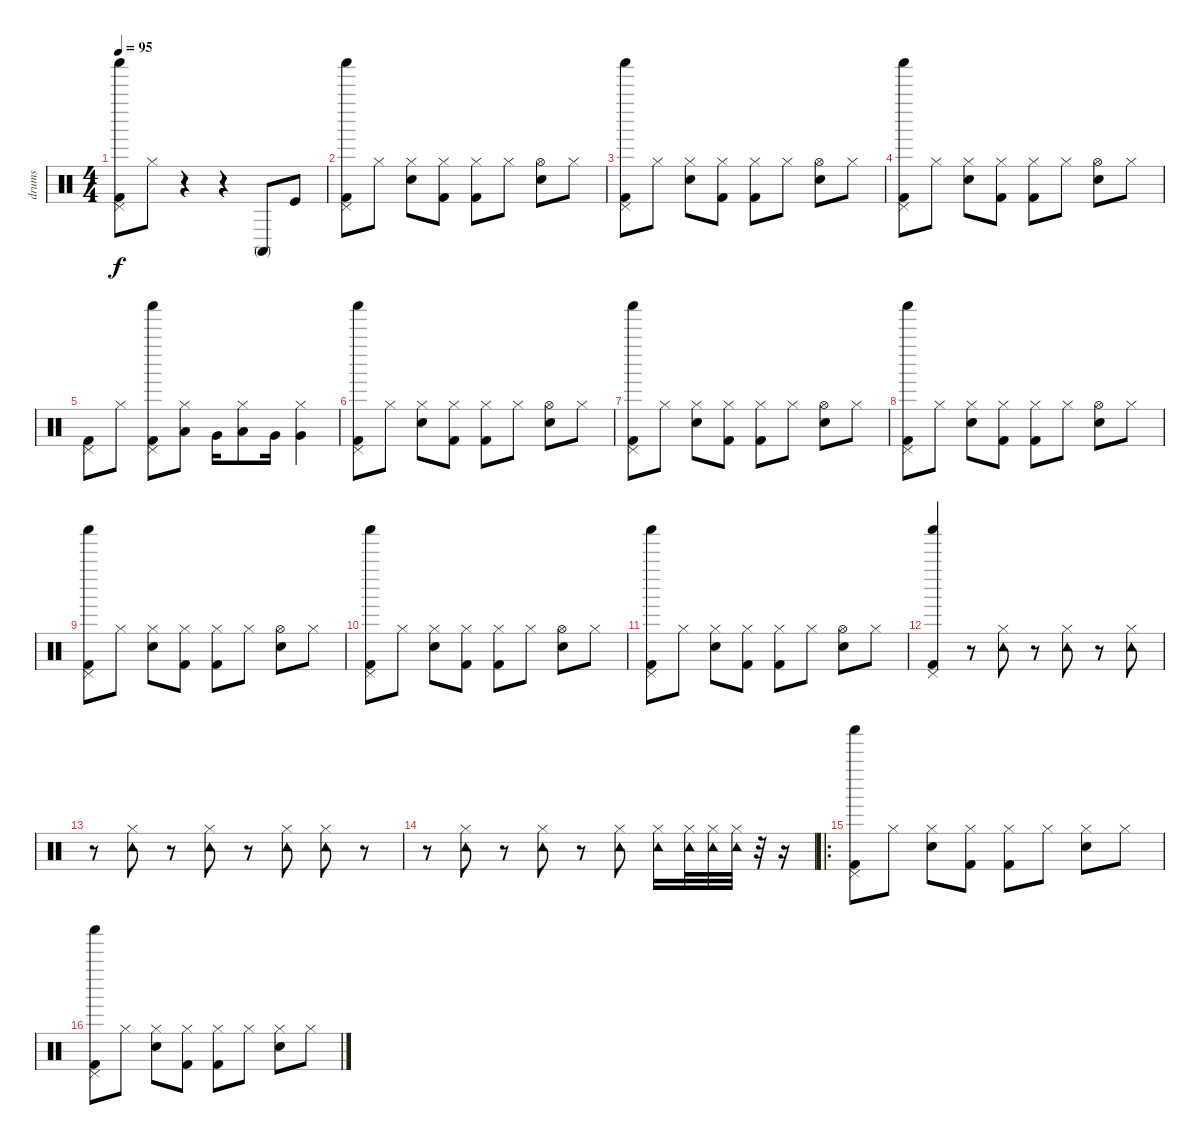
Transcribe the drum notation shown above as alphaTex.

\track ("drums" "drums") {instrument percussion}
\staff {score}
\articulation defaults
\ts (4 4)
\tempo 95
\clef neutral
\ks c
("Kick (hit) 2" "Shaker (hit)" "Pedal Hi-Hat (hit)").8{dy f} "Hi-Hat (closed)".8 r.4 r.4 "Conga high (mute)".8 "Kick (hit)".8 |
("Kick (hit) 2" "Shaker (hit)" "Pedal Hi-Hat (hit)").8 "Hi-Hat (closed)".8 ("Snare (hit) 2" "Hi-Hat (closed)").8 ("Kick (hit) 2" "Hi-Hat (closed)").8 ("Kick (hit) 2" "Hi-Hat (closed)").8 "Hi-Hat (closed)".8 ("Snare (hit) 2" "Hi-Hat (open)").8 "Hi-Hat (closed)".8 |
("Kick (hit) 2" "Shaker (hit)" "Pedal Hi-Hat (hit)").8 "Hi-Hat (closed)".8 ("Snare (hit) 2" "Hi-Hat (closed)").8 ("Kick (hit) 2" "Hi-Hat (closed)").8 ("Kick (hit) 2" "Hi-Hat (closed)").8 "Hi-Hat (closed)".8 ("Snare (hit) 2" "Hi-Hat (open)").8 "Hi-Hat (closed)".8 |
("Kick (hit) 2" "Shaker (hit)" "Pedal Hi-Hat (hit)").8 "Hi-Hat (closed)".8 ("Snare (hit) 2" "Hi-Hat (closed)").8 ("Kick (hit) 2" "Hi-Hat (closed)").8 ("Kick (hit) 2" "Hi-Hat (closed)").8 "Hi-Hat (closed)".8 ("Snare (hit) 2" "Hi-Hat (open)").8 "Hi-Hat (closed)".8 |
("Kick (hit) 2" "Pedal Hi-Hat (hit)").8 "Hi-Hat (closed)".8 ("Kick (hit) 2" "Shaker (hit)" "Pedal Hi-Hat (hit)").8 ("Low Floor Tom (hit)" "Hi-Hat (closed)").8 "Very Low Tom (hit)".16 ("Low Tom (hit)" "Hi-Hat (closed)").8 "Very Low Tom (hit)".16 ("Very Low Tom (hit)" "Hi-Hat (closed)").4 |
("Kick (hit) 2" "Shaker (hit)" "Pedal Hi-Hat (hit)").8 "Hi-Hat (closed)".8 ("Snare (hit) 2" "Hi-Hat (closed)").8 ("Kick (hit) 2" "Hi-Hat (closed)").8 ("Kick (hit) 2" "Hi-Hat (closed)").8 "Hi-Hat (closed)".8 ("Snare (hit) 2" "Hi-Hat (open)").8 "Hi-Hat (closed)".8 |
("Kick (hit) 2" "Shaker (hit)" "Pedal Hi-Hat (hit)").8 "Hi-Hat (closed)".8 ("Snare (hit) 2" "Hi-Hat (closed)").8 ("Kick (hit) 2" "Hi-Hat (closed)").8 ("Kick (hit) 2" "Hi-Hat (closed)").8 "Hi-Hat (closed)".8 ("Snare (hit) 2" "Hi-Hat (open)").8 "Hi-Hat (closed)".8 |
("Kick (hit) 2" "Shaker (hit)" "Pedal Hi-Hat (hit)").8 "Hi-Hat (closed)".8 ("Snare (hit) 2" "Hi-Hat (closed)").8 ("Kick (hit) 2" "Hi-Hat (closed)").8 ("Kick (hit) 2" "Hi-Hat (closed)").8 "Hi-Hat (closed)".8 ("Snare (hit) 2" "Hi-Hat (open)").8 "Hi-Hat (closed)".8 |
("Kick (hit) 2" "Shaker (hit)" "Pedal Hi-Hat (hit)").8 "Hi-Hat (closed)".8 ("Snare (hit) 2" "Hi-Hat (closed)").8 ("Kick (hit) 2" "Hi-Hat (closed)").8 ("Kick (hit) 2" "Hi-Hat (closed)").8 "Hi-Hat (closed)".8 ("Snare (hit) 2" "Hi-Hat (open)").8 "Hi-Hat (closed)".8 |
("Kick (hit) 2" "Shaker (hit)" "Pedal Hi-Hat (hit)").8 "Hi-Hat (closed)".8 ("Snare (hit) 2" "Hi-Hat (closed)").8 ("Kick (hit) 2" "Hi-Hat (closed)").8 ("Kick (hit) 2" "Hi-Hat (closed)").8 "Hi-Hat (closed)".8 ("Snare (hit) 2" "Hi-Hat (open)").8 "Hi-Hat (closed)".8 |
("Kick (hit) 2" "Shaker (hit)" "Pedal Hi-Hat (hit)").8 "Hi-Hat (closed)".8 ("Snare (hit) 2" "Hi-Hat (closed)").8 ("Kick (hit) 2" "Hi-Hat (closed)").8 ("Kick (hit) 2" "Hi-Hat (closed)").8 "Hi-Hat (closed)".8 ("Snare (hit) 2" "Hi-Hat (open)").8 "Hi-Hat (closed)".8 |
("Kick (hit) 2" "Shaker (hit)" "Pedal Hi-Hat (hit)").4 r.8 ("Hi-Hat (closed)" "Tambourine (hit)").8 r.8 ("Hi-Hat (closed)" "Tambourine (hit)").8 r.8 ("Hi-Hat (closed)" "Tambourine (hit)").8 |
r.8 ("Hi-Hat (closed)" "Tambourine (hit)").8 r.8 ("Hi-Hat (closed)" "Tambourine (hit)").8 r.8 ("Hi-Hat (closed)" "Tambourine (hit)").8 ("Hi-Hat (closed)" "Tambourine (hit)").8 r.8 |
r.8 ("Hi-Hat (closed)" "Tambourine (hit)").8 r.8 ("Hi-Hat (closed)" "Tambourine (hit)").8 r.8 ("Hi-Hat (closed)" "Tambourine (hit)").8 ("Hi-Hat (closed)" "Tambourine (hit)").16 ("Hi-Hat (closed)" "Tambourine (hit)").32 ("Hi-Hat (closed)" "Tambourine (hit)").32 ("Hi-Hat (closed)" "Tambourine (hit)").32 r.32 r.16 |
\ro
("Kick (hit) 2" "Shaker (hit)" "Pedal Hi-Hat (hit)").8 "Hi-Hat (closed)".8 ("Snare (hit) 2" "Hi-Hat (closed)").8 ("Kick (hit) 2" "Hi-Hat (closed)").8 ("Kick (hit) 2" "Hi-Hat (closed)").8 "Hi-Hat (closed)".8 ("Snare (hit) 2" "Hi-Hat (closed)").8 "Hi-Hat (closed)".8 |
("Kick (hit) 2" "Shaker (hit)" "Pedal Hi-Hat (hit)").8 "Hi-Hat (closed)".8 ("Snare (hit) 2" "Hi-Hat (closed)").8 ("Kick (hit) 2" "Hi-Hat (closed)").8 ("Kick (hit) 2" "Hi-Hat (closed)").8 "Hi-Hat (closed)".8 ("Snare (hit) 2" "Hi-Hat (closed)").8 "Hi-Hat (closed)".8
